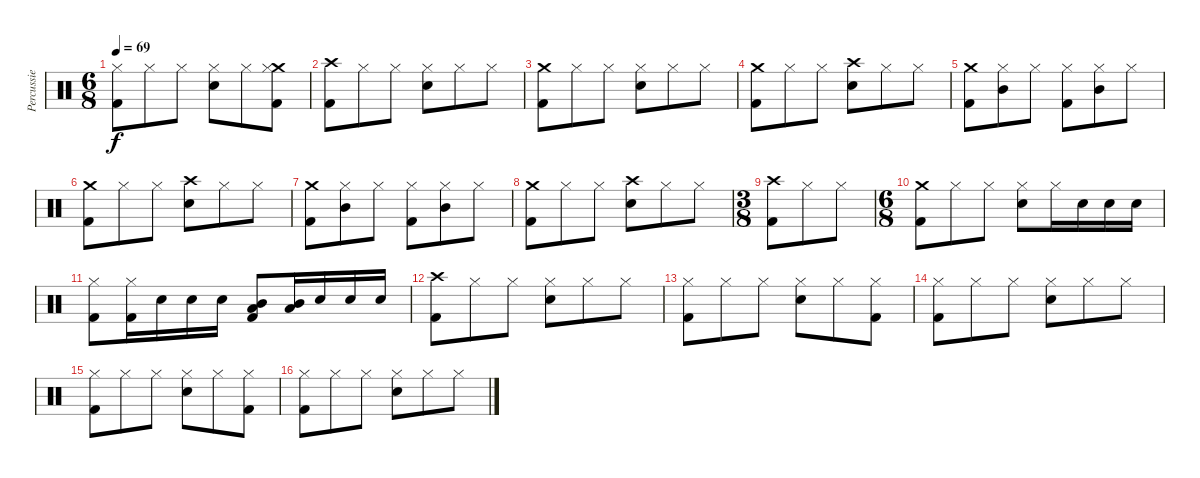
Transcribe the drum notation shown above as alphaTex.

\track ("Percussie" "Percussie") {instrument percussion}
\staff {score}
\articulation defaults
\ts (6 8)
\tempo 69
\clef neutral
\ks c
("Hi-Hat (closed)" "Kick (hit) 2").8{dy f} "Hi-Hat (closed)".8 "Hi-Hat (closed)".8 ("Hi-Hat (closed)" "Snare (hit) 2").8 "Hi-Hat (closed)".8 ("Crash medium (hit)" "Hi-Hat (closed)" "Kick (hit) 2").8 |
("Crash high (hit)" "Kick (hit) 2").8 "Hi-Hat (closed)".8 "Hi-Hat (closed)".8 ("Hi-Hat (closed)" "Snare (hit) 2").8 "Hi-Hat (closed)".8 "Hi-Hat (closed)".8 |
("Crash medium (hit)" "Kick (hit) 2").8 "Hi-Hat (closed)".8 "Hi-Hat (closed)".8 ("Hi-Hat (closed)" "Snare (hit) 2").8 "Hi-Hat (closed)".8 "Hi-Hat (closed)".8 |
("Crash medium (hit)" "Kick (hit) 2").8 "Hi-Hat (closed)".8 "Hi-Hat (closed)".8 ("Crash high (hit)" "Snare (hit) 2").8 "Hi-Hat (closed)".8 "Hi-Hat (closed)".8 |
("Crash medium (hit)" "Kick (hit) 2").8 ("Hi-Hat (closed)" "Mid Tom (hit)").8 "Hi-Hat (closed)".8 ("Hi-Hat (closed)" "Kick (hit) 2").8 ("Hi-Hat (closed)" "Mid Tom (hit)").8 "Hi-Hat (closed)".8 |
("Crash medium (hit)" "Kick (hit) 2").8 "Hi-Hat (closed)".8 "Hi-Hat (closed)".8 ("Crash high (hit)" "Snare (hit) 2").8 "Hi-Hat (closed)".8 "Hi-Hat (closed)".8 |
("Crash medium (hit)" "Kick (hit) 2").8 ("Hi-Hat (closed)" "Mid Tom (hit)").8 "Hi-Hat (closed)".8 ("Hi-Hat (closed)" "Kick (hit) 2").8 ("Hi-Hat (closed)" "Mid Tom (hit)").8 "Hi-Hat (closed)".8 |
("Crash medium (hit)" "Kick (hit) 2").8 "Hi-Hat (closed)".8 "Hi-Hat (closed)".8 ("Crash high (hit)" "Snare (hit) 2").8 "Hi-Hat (closed)".8 "Hi-Hat (closed)".8 |
\ts (3 8)
("Crash high (hit)" "Kick (hit) 2").8 "Hi-Hat (closed)".8 "Hi-Hat (closed)".8 |
\ts (6 8)
("Crash medium (hit)" "Kick (hit) 2").8 "Hi-Hat (closed)".8 "Hi-Hat (closed)".8 ("Hi-Hat (closed)" "Snare (hit) 2").8 "Hi-Hat (closed)".16 "Snare (hit) 2".16 "Snare (hit) 2".16 "Snare (hit) 2".16 |
("Hi-Hat (closed)" "Kick (hit) 2").8 ("Hi-Hat (closed)" "Kick (hit) 2").16 "Snare (hit) 2".16 "Snare (hit) 2".16 "Snare (hit) 2".16 ("Mid Tom (hit)" "Low Tom (hit)" "Kick (hit) 2").8 ("Mid Tom (hit)" "Low Tom (hit)").16 "Snare (hit) 2".16 "Snare (hit) 2".16 "Snare (hit) 2".16 |
("Crash high (hit)" "Kick (hit) 2").8 "Hi-Hat (closed)".8 "Hi-Hat (closed)".8 ("Hi-Hat (closed)" "Snare (hit) 2").8 "Hi-Hat (closed)".8 "Hi-Hat (closed)".8 |
("Hi-Hat (closed)" "Kick (hit) 2").8 "Hi-Hat (closed)".8 "Hi-Hat (closed)".8 ("Hi-Hat (closed)" "Snare (hit) 2").8 "Hi-Hat (closed)".8 ("Hi-Hat (closed)" "Kick (hit) 2").8 |
("Hi-Hat (closed)" "Kick (hit) 2").8 "Hi-Hat (closed)".8 "Hi-Hat (closed)".8 ("Hi-Hat (closed)" "Snare (hit) 2").8 "Hi-Hat (closed)".8 "Hi-Hat (closed)".8 |
("Hi-Hat (closed)" "Kick (hit) 2").8 "Hi-Hat (closed)".8 "Hi-Hat (closed)".8 ("Hi-Hat (closed)" "Snare (hit) 2").8 "Hi-Hat (closed)".8 ("Hi-Hat (closed)" "Kick (hit) 2").8 |
("Hi-Hat (closed)" "Kick (hit) 2").8 "Hi-Hat (closed)".8 "Hi-Hat (closed)".8 ("Hi-Hat (closed)" "Snare (hit) 2").8 "Hi-Hat (closed)".8 "Hi-Hat (closed)".8
